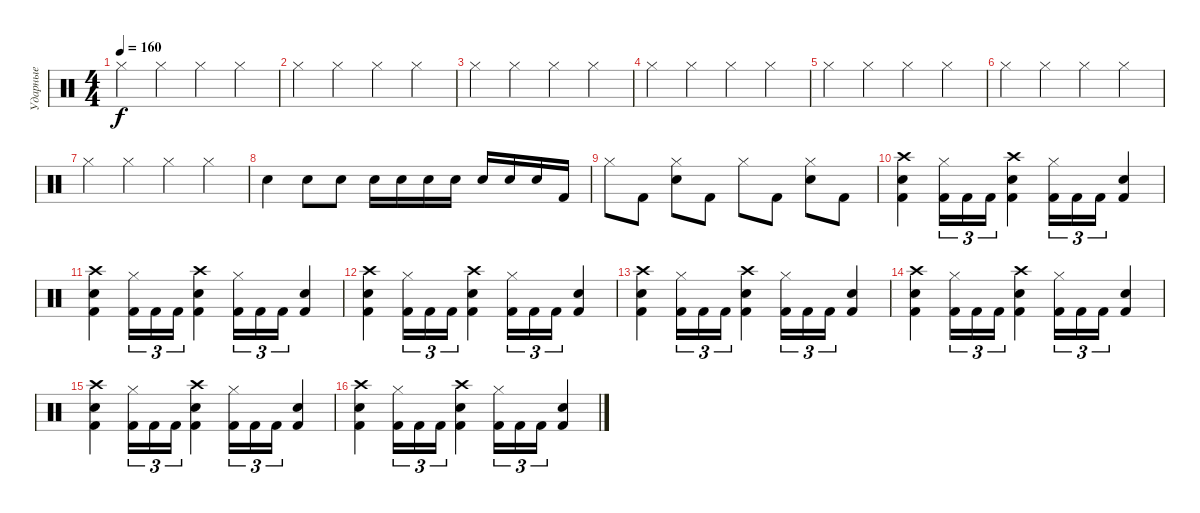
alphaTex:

\track ("Ударные" "Ударные") {instrument percussion}
\staff {score}
\articulation defaults
\ts (4 4)
\tempo 160
\clef neutral
\ks c "Hi-Hat (closed)".4{dy f} "Hi-Hat (closed)".4 "Hi-Hat (closed)".4 "Hi-Hat (closed)".4
|
"Hi-Hat (closed)".4 "Hi-Hat (closed)".4 "Hi-Hat (closed)".4 "Hi-Hat (closed)".4 |
"Hi-Hat (closed)".4 "Hi-Hat (closed)".4 "Hi-Hat (closed)".4 "Hi-Hat (closed)".4 |
"Hi-Hat (closed)".4 "Hi-Hat (closed)".4 "Hi-Hat (closed)".4 "Hi-Hat (closed)".4 |
"Hi-Hat (closed)".4 "Hi-Hat (closed)".4 "Hi-Hat (closed)".4 "Hi-Hat (closed)".4 |
"Hi-Hat (closed)".4 "Hi-Hat (closed)".4 "Hi-Hat (closed)".4 "Hi-Hat (closed)".4 |
"Hi-Hat (closed)".4 "Hi-Hat (closed)".4 "Hi-Hat (closed)".4 "Hi-Hat (closed)".4 |
"Snare (hit) 2".4 "Snare (hit) 2".8 "Snare (hit) 2".8 "Snare (hit) 2".16 "Snare (hit) 2".16 "Snare (hit) 2".16 "Snare (hit) 2".16 "Snare (hit) 2".16 "Snare (hit) 2".16 "Snare (hit) 2".16 "Kick (hit) 2".16 |
"Hi-Hat (closed)".8 "Kick (hit) 2".8 ("Hi-Hat (closed)" "Snare (hit) 2").8 "Kick (hit) 2".8 "Hi-Hat (closed)".8 "Kick (hit) 2".8 ("Hi-Hat (closed)" "Snare (hit) 2").8 "Kick (hit) 2".8 |
("Kick (hit) 2" "Crash high (hit)" "Snare (hit) 2").4 ("Hi-Hat (closed)" "Kick (hit) 2").16{tu (3 2)} "Kick (hit) 2".16{tu (3 2)} "Kick (hit) 2".16{tu (3 2)} ("Crash high (hit)" "Snare (hit) 2" "Kick (hit) 2").4 ("Hi-Hat (closed)" "Kick (hit) 2").16{tu (3 2)} "Kick (hit) 2".16{tu (3 2)} "Kick (hit) 2".16{tu (3 2)} ("Snare (hit) 2" "Kick (hit) 2").4 |
("Kick (hit) 2" "Crash high (hit)" "Snare (hit) 2").4 ("Hi-Hat (closed)" "Kick (hit) 2").16{tu (3 2)} "Kick (hit) 2".16{tu (3 2)} "Kick (hit) 2".16{tu (3 2)} ("Crash high (hit)" "Snare (hit) 2" "Kick (hit) 2").4 ("Hi-Hat (closed)" "Kick (hit) 2").16{tu (3 2)} "Kick (hit) 2".16{tu (3 2)} "Kick (hit) 2".16{tu (3 2)} ("Snare (hit) 2" "Kick (hit) 2").4 |
("Kick (hit) 2" "Crash high (hit)" "Snare (hit) 2").4 ("Hi-Hat (closed)" "Kick (hit) 2").16{tu (3 2)} "Kick (hit) 2".16{tu (3 2)} "Kick (hit) 2".16{tu (3 2)} ("Crash high (hit)" "Snare (hit) 2" "Kick (hit) 2").4 ("Hi-Hat (closed)" "Kick (hit) 2").16{tu (3 2)} "Kick (hit) 2".16{tu (3 2)} "Kick (hit) 2".16{tu (3 2)} ("Snare (hit) 2" "Kick (hit) 2").4 |
("Kick (hit) 2" "Crash high (hit)" "Snare (hit) 2").4 ("Hi-Hat (closed)" "Kick (hit) 2").16{tu (3 2)} "Kick (hit) 2".16{tu (3 2)} "Kick (hit) 2".16{tu (3 2)} ("Crash high (hit)" "Snare (hit) 2" "Kick (hit) 2").4 ("Hi-Hat (closed)" "Kick (hit) 2").16{tu (3 2)} "Kick (hit) 2".16{tu (3 2)} "Kick (hit) 2".16{tu (3 2)} ("Snare (hit) 2" "Kick (hit) 2").4 |
("Kick (hit) 2" "Crash high (hit)" "Snare (hit) 2").4 ("Hi-Hat (closed)" "Kick (hit) 2").16{tu (3 2)} "Kick (hit) 2".16{tu (3 2)} "Kick (hit) 2".16{tu (3 2)} ("Crash high (hit)" "Snare (hit) 2" "Kick (hit) 2").4 ("Hi-Hat (closed)" "Kick (hit) 2").16{tu (3 2)} "Kick (hit) 2".16{tu (3 2)} "Kick (hit) 2".16{tu (3 2)} ("Snare (hit) 2" "Kick (hit) 2").4 |
("Kick (hit) 2" "Crash high (hit)" "Snare (hit) 2").4 ("Hi-Hat (closed)" "Kick (hit) 2").16{tu (3 2)} "Kick (hit) 2".16{tu (3 2)} "Kick (hit) 2".16{tu (3 2)} ("Crash high (hit)" "Snare (hit) 2" "Kick (hit) 2").4 ("Hi-Hat (closed)" "Kick (hit) 2").16{tu (3 2)} "Kick (hit) 2".16{tu (3 2)} "Kick (hit) 2".16{tu (3 2)} ("Snare (hit) 2" "Kick (hit) 2").4 |
("Kick (hit) 2" "Crash high (hit)" "Snare (hit) 2").4 ("Hi-Hat (closed)" "Kick (hit) 2").16{tu (3 2)} "Kick (hit) 2".16{tu (3 2)} "Kick (hit) 2".16{tu (3 2)} ("Crash high (hit)" "Snare (hit) 2" "Kick (hit) 2").4 ("Hi-Hat (closed)" "Kick (hit) 2").16{tu (3 2)} "Kick (hit) 2".16{tu (3 2)} "Kick (hit) 2".16{tu (3 2)} ("Snare (hit) 2" "Kick (hit) 2").4
